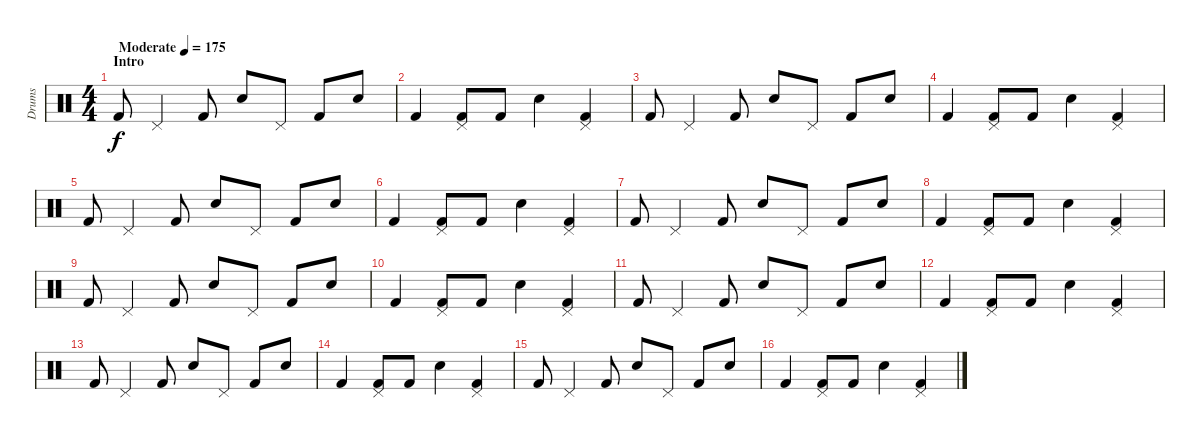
\track ("Drums" "Drums") {instrument percussion}
\staff {score}
\articulation defaults
\ts (4 4)
\section ("" "Intro")
\tempo (175 "Moderate")
\clef neutral
\ks c "Kick (hit) 2".8{dy f volume 1} "Pedal Hi-Hat (hit)".4{volume 6 balance 11} "Kick (hit) 2".8 "Electric Snare (hit)".8 "Pedal Hi-Hat (hit)".8 "Kick (hit) 2".8 "Electric Snare (hit)".8
|
"Kick (hit) 2".4 ("Pedal Hi-Hat (hit)" "Kick (hit) 2").8 "Kick (hit) 2".8 "Electric Snare (hit)".4 ("Pedal Hi-Hat (hit)" "Kick (hit) 2").4 |
"Kick (hit) 2".8 "Pedal Hi-Hat (hit)".4 "Kick (hit) 2".8 "Electric Snare (hit)".8 "Pedal Hi-Hat (hit)".8 "Kick (hit) 2".8 "Electric Snare (hit)".8 |
"Kick (hit) 2".4 ("Pedal Hi-Hat (hit)" "Kick (hit) 2").8 "Kick (hit) 2".8 "Electric Snare (hit)".4 ("Pedal Hi-Hat (hit)" "Kick (hit) 2").4 |
"Kick (hit) 2".8 "Pedal Hi-Hat (hit)".4 "Kick (hit) 2".8 "Electric Snare (hit)".8 "Pedal Hi-Hat (hit)".8 "Kick (hit) 2".8 "Electric Snare (hit)".8 |
"Kick (hit) 2".4 ("Pedal Hi-Hat (hit)" "Kick (hit) 2").8 "Kick (hit) 2".8 "Electric Snare (hit)".4 ("Pedal Hi-Hat (hit)" "Kick (hit) 2").4 |
"Kick (hit) 2".8 "Pedal Hi-Hat (hit)".4 "Kick (hit) 2".8 "Electric Snare (hit)".8 "Pedal Hi-Hat (hit)".8 "Kick (hit) 2".8 "Electric Snare (hit)".8 |
"Kick (hit) 2".4 ("Pedal Hi-Hat (hit)" "Kick (hit) 2").8 "Kick (hit) 2".8 "Electric Snare (hit)".4 ("Pedal Hi-Hat (hit)" "Kick (hit) 2").4 |
"Kick (hit) 2".8 "Pedal Hi-Hat (hit)".4 "Kick (hit) 2".8 "Electric Snare (hit)".8 "Pedal Hi-Hat (hit)".8 "Kick (hit) 2".8 "Electric Snare (hit)".8 |
"Kick (hit) 2".4 ("Pedal Hi-Hat (hit)" "Kick (hit) 2").8 "Kick (hit) 2".8 "Electric Snare (hit)".4 ("Pedal Hi-Hat (hit)" "Kick (hit) 2").4 |
"Kick (hit) 2".8 "Pedal Hi-Hat (hit)".4 "Kick (hit) 2".8 "Electric Snare (hit)".8 "Pedal Hi-Hat (hit)".8 "Kick (hit) 2".8 "Electric Snare (hit)".8 |
"Kick (hit) 2".4 ("Pedal Hi-Hat (hit)" "Kick (hit) 2").8 "Kick (hit) 2".8 "Electric Snare (hit)".4 ("Pedal Hi-Hat (hit)" "Kick (hit) 2").4 |
"Kick (hit) 2".8 "Pedal Hi-Hat (hit)".4 "Kick (hit) 2".8 "Electric Snare (hit)".8 "Pedal Hi-Hat (hit)".8 "Kick (hit) 2".8 "Electric Snare (hit)".8 |
"Kick (hit) 2".4 ("Pedal Hi-Hat (hit)" "Kick (hit) 2").8 "Kick (hit) 2".8 "Electric Snare (hit)".4 ("Pedal Hi-Hat (hit)" "Kick (hit) 2").4 |
"Kick (hit) 2".8 "Pedal Hi-Hat (hit)".4 "Kick (hit) 2".8 "Electric Snare (hit)".8 "Pedal Hi-Hat (hit)".8 "Kick (hit) 2".8 "Electric Snare (hit)".8 |
"Kick (hit) 2".4 ("Pedal Hi-Hat (hit)" "Kick (hit) 2").8 "Kick (hit) 2".8 "Electric Snare (hit)".4 ("Pedal Hi-Hat (hit)" "Kick (hit) 2").4
